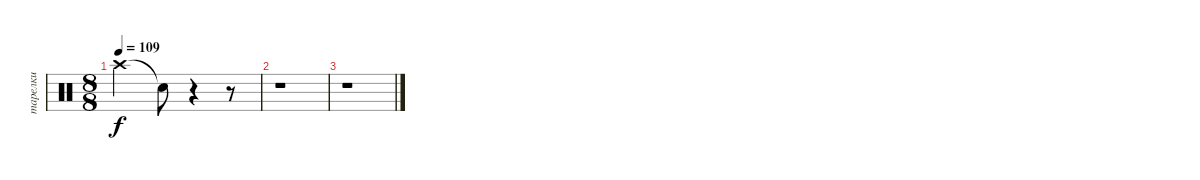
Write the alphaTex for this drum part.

\track ("тарелки" "тарелки") {instrument percussion}
\staff {score}
\articulation defaults
\ts (8 8)
\tempo 109
\clef neutral
\ks c "Crash high (hit)".2{dy f} "Snare (hit)"{t}.8
r.4 r.8 |
r.1 |
r.1
